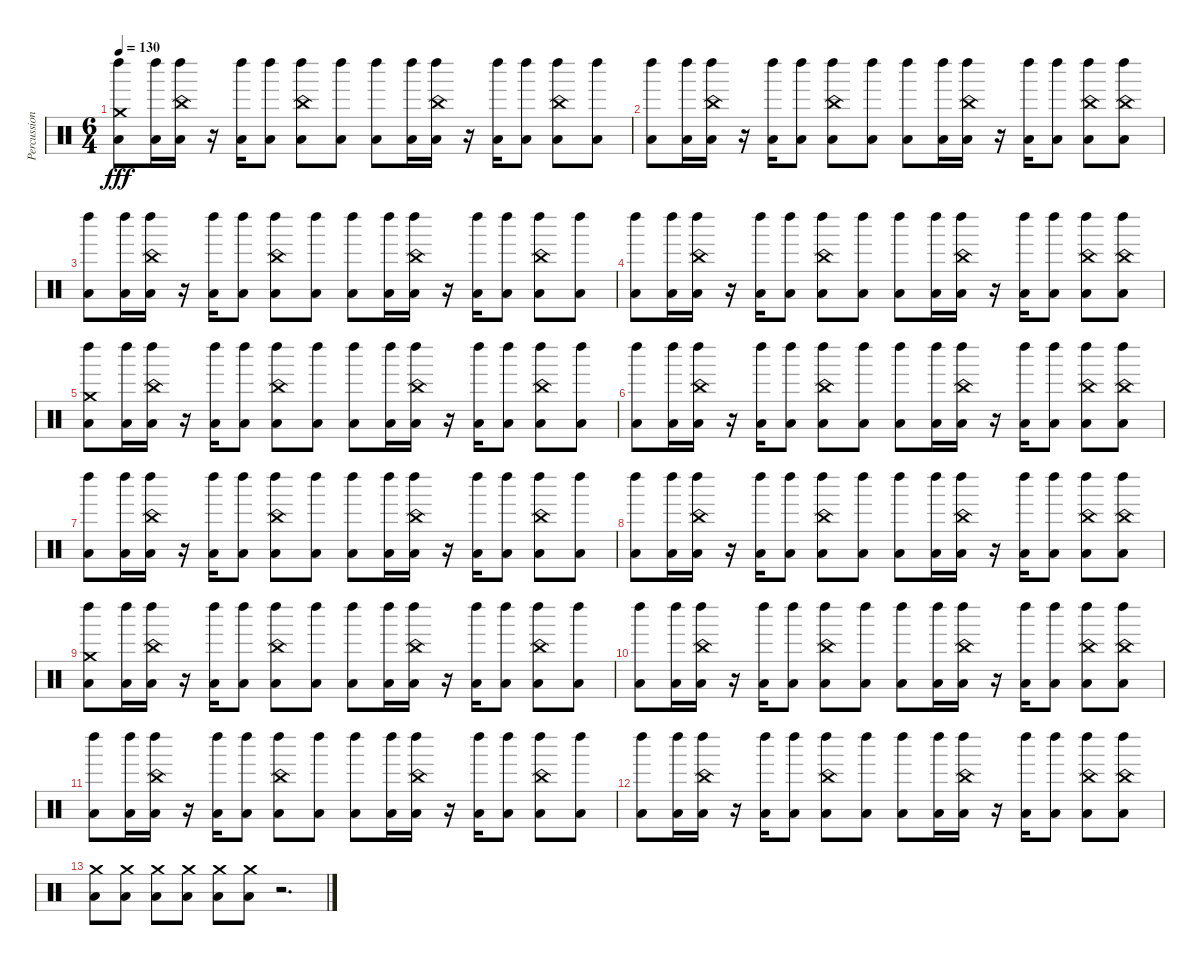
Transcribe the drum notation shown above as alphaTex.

\track ("Percussion" "Percussion") {instrument percussion}
\staff {score}
\articulation defaults
\ts (6 4)
\tempo 130
\clef neutral
\ks c
("Left Maraca (hit)" "Crash medium (hit)" "Low Floor Tom (hit)").8{dy fff} ("Left Maraca (hit)" "Low Tom (hit)").16 ("Left Maraca (hit)" "China (hit)" "Low Tom (hit)").16 r.16 ("Left Maraca (hit)" "Low Floor Tom (hit)").16 ("Left Maraca (hit)" "Low Floor Tom (hit)").8 ("Left Maraca (hit)" "China (hit)" "Low Tom (hit)").8 ("Left Maraca (hit)" "Low Tom (hit)").8 ("Left Maraca (hit)" "Low Floor Tom (hit)").8 ("Left Maraca (hit)" "Low Tom (hit)").16 ("Left Maraca (hit)" "China (hit)" "Low Tom (hit)").16 r.16 ("Left Maraca (hit)" "Low Floor Tom (hit)").16 ("Left Maraca (hit)" "Low Floor Tom (hit)").8 ("Left Maraca (hit)" "China (hit)" "Low Tom (hit)").8 ("Left Maraca (hit)" "Low Tom (hit)").8 |
("Left Maraca (hit)" "Low Floor Tom (hit)").8 ("Left Maraca (hit)" "Low Tom (hit)").16 ("Left Maraca (hit)" "China (hit)" "Low Tom (hit)").16 r.16 ("Left Maraca (hit)" "Low Floor Tom (hit)").16 ("Left Maraca (hit)" "Low Floor Tom (hit)").8 ("Left Maraca (hit)" "China (hit)" "Low Tom (hit)").8 ("Left Maraca (hit)" "Low Tom (hit)").8 ("Left Maraca (hit)" "Low Floor Tom (hit)").8 ("Left Maraca (hit)" "Low Tom (hit)").16 ("Left Maraca (hit)" "China (hit)" "Low Tom (hit)").16 r.16 ("Left Maraca (hit)" "Low Floor Tom (hit)").16 ("Left Maraca (hit)" "Low Floor Tom (hit)").8 ("Left Maraca (hit)" "China (hit)" "Low Tom (hit)").8 ("Left Maraca (hit)" "China (hit)" "Low Tom (hit)").8 |
("Left Maraca (hit)" "Low Floor Tom (hit)").8 ("Left Maraca (hit)" "Low Tom (hit)").16 ("Left Maraca (hit)" "China (hit)" "Low Tom (hit)").16 r.16 ("Left Maraca (hit)" "Low Floor Tom (hit)").16 ("Left Maraca (hit)" "Low Floor Tom (hit)").8 ("Left Maraca (hit)" "China (hit)" "Low Tom (hit)").8 ("Left Maraca (hit)" "Low Tom (hit)").8 ("Left Maraca (hit)" "Low Floor Tom (hit)").8 ("Left Maraca (hit)" "Low Tom (hit)").16 ("Left Maraca (hit)" "China (hit)" "Low Tom (hit)").16 r.16 ("Left Maraca (hit)" "Low Floor Tom (hit)").16 ("Left Maraca (hit)" "Low Floor Tom (hit)").8 ("Left Maraca (hit)" "China (hit)" "Low Tom (hit)").8 ("Left Maraca (hit)" "Low Tom (hit)").8 |
("Left Maraca (hit)" "Low Floor Tom (hit)").8 ("Left Maraca (hit)" "Low Tom (hit)").16 ("Left Maraca (hit)" "China (hit)" "Low Tom (hit)").16 r.16 ("Left Maraca (hit)" "Low Floor Tom (hit)").16 ("Left Maraca (hit)" "Low Floor Tom (hit)").8 ("Left Maraca (hit)" "China (hit)" "Low Tom (hit)").8 ("Left Maraca (hit)" "Low Tom (hit)").8 ("Left Maraca (hit)" "Low Floor Tom (hit)").8 ("Left Maraca (hit)" "Low Tom (hit)").16 ("Left Maraca (hit)" "China (hit)" "Low Tom (hit)").16 r.16 ("Left Maraca (hit)" "Low Floor Tom (hit)").16 ("Left Maraca (hit)" "Low Floor Tom (hit)").8 ("Left Maraca (hit)" "China (hit)" "Low Tom (hit)").8 ("Left Maraca (hit)" "China (hit)" "Low Tom (hit)").8 |
("Left Maraca (hit)" "Crash medium (hit)" "Low Floor Tom (hit)").8 ("Left Maraca (hit)" "Low Tom (hit)").16 ("Left Maraca (hit)" "China (hit)" "Low Tom (hit)").16 r.16 ("Left Maraca (hit)" "Low Floor Tom (hit)").16 ("Left Maraca (hit)" "Low Floor Tom (hit)").8 ("Left Maraca (hit)" "China (hit)" "Low Tom (hit)").8 ("Left Maraca (hit)" "Low Tom (hit)").8 ("Left Maraca (hit)" "Low Floor Tom (hit)").8 ("Left Maraca (hit)" "Low Tom (hit)").16 ("Left Maraca (hit)" "China (hit)" "Low Tom (hit)").16 r.16 ("Left Maraca (hit)" "Low Floor Tom (hit)").16 ("Left Maraca (hit)" "Low Floor Tom (hit)").8 ("Left Maraca (hit)" "China (hit)" "Low Tom (hit)").8 ("Left Maraca (hit)" "Low Tom (hit)").8 |
("Left Maraca (hit)" "Low Floor Tom (hit)").8 ("Left Maraca (hit)" "Low Tom (hit)").16 ("Left Maraca (hit)" "China (hit)" "Low Tom (hit)").16 r.16 ("Left Maraca (hit)" "Low Floor Tom (hit)").16 ("Left Maraca (hit)" "Low Floor Tom (hit)").8 ("Left Maraca (hit)" "China (hit)" "Low Tom (hit)").8 ("Left Maraca (hit)" "Low Tom (hit)").8 ("Left Maraca (hit)" "Low Floor Tom (hit)").8 ("Left Maraca (hit)" "Low Tom (hit)").16 ("Left Maraca (hit)" "China (hit)" "Low Tom (hit)").16 r.16 ("Left Maraca (hit)" "Low Floor Tom (hit)").16 ("Left Maraca (hit)" "Low Floor Tom (hit)").8 ("Left Maraca (hit)" "China (hit)" "Low Tom (hit)").8 ("Left Maraca (hit)" "China (hit)" "Low Tom (hit)").8 |
("Left Maraca (hit)" "Low Floor Tom (hit)").8 ("Left Maraca (hit)" "Low Tom (hit)").16 ("Left Maraca (hit)" "China (hit)" "Low Tom (hit)").16 r.16 ("Left Maraca (hit)" "Low Floor Tom (hit)").16 ("Left Maraca (hit)" "Low Floor Tom (hit)").8 ("Left Maraca (hit)" "China (hit)" "Low Tom (hit)").8 ("Left Maraca (hit)" "Low Tom (hit)").8 ("Left Maraca (hit)" "Low Floor Tom (hit)").8 ("Left Maraca (hit)" "Low Tom (hit)").16 ("Left Maraca (hit)" "China (hit)" "Low Tom (hit)").16 r.16 ("Left Maraca (hit)" "Low Floor Tom (hit)").16 ("Left Maraca (hit)" "Low Floor Tom (hit)").8 ("Left Maraca (hit)" "China (hit)" "Low Tom (hit)").8 ("Left Maraca (hit)" "Low Tom (hit)").8 |
("Left Maraca (hit)" "Low Floor Tom (hit)").8 ("Left Maraca (hit)" "Low Tom (hit)").16 ("Left Maraca (hit)" "China (hit)" "Low Tom (hit)").16 r.16 ("Left Maraca (hit)" "Low Floor Tom (hit)").16 ("Left Maraca (hit)" "Low Floor Tom (hit)").8 ("Left Maraca (hit)" "China (hit)" "Low Tom (hit)").8 ("Left Maraca (hit)" "Low Tom (hit)").8 ("Left Maraca (hit)" "Low Floor Tom (hit)").8 ("Left Maraca (hit)" "Low Tom (hit)").16 ("Left Maraca (hit)" "China (hit)" "Low Tom (hit)").16 r.16 ("Left Maraca (hit)" "Low Floor Tom (hit)").16 ("Left Maraca (hit)" "Low Floor Tom (hit)").8 ("Left Maraca (hit)" "China (hit)" "Low Tom (hit)").8 ("Left Maraca (hit)" "China (hit)" "Low Tom (hit)").8 |
("Left Maraca (hit)" "Crash medium (hit)" "Low Floor Tom (hit)").8 ("Left Maraca (hit)" "Low Tom (hit)").16 ("Left Maraca (hit)" "China (hit)" "Low Tom (hit)").16 r.16 ("Left Maraca (hit)" "Low Floor Tom (hit)").16 ("Left Maraca (hit)" "Low Floor Tom (hit)").8 ("Left Maraca (hit)" "China (hit)" "Low Tom (hit)").8 ("Left Maraca (hit)" "Low Tom (hit)").8 ("Left Maraca (hit)" "Low Floor Tom (hit)").8 ("Left Maraca (hit)" "Low Tom (hit)").16 ("Left Maraca (hit)" "China (hit)" "Low Tom (hit)").16 r.16 ("Left Maraca (hit)" "Low Floor Tom (hit)").16 ("Left Maraca (hit)" "Low Floor Tom (hit)").8 ("Left Maraca (hit)" "China (hit)" "Low Tom (hit)").8 ("Left Maraca (hit)" "Low Tom (hit)").8 |
("Left Maraca (hit)" "Low Floor Tom (hit)").8 ("Left Maraca (hit)" "Low Tom (hit)").16 ("Left Maraca (hit)" "China (hit)" "Low Tom (hit)").16 r.16 ("Left Maraca (hit)" "Low Floor Tom (hit)").16 ("Left Maraca (hit)" "Low Floor Tom (hit)").8 ("Left Maraca (hit)" "China (hit)" "Low Tom (hit)").8 ("Left Maraca (hit)" "Low Tom (hit)").8 ("Left Maraca (hit)" "Low Floor Tom (hit)").8 ("Left Maraca (hit)" "Low Tom (hit)").16 ("Left Maraca (hit)" "China (hit)" "Low Tom (hit)").16 r.16 ("Left Maraca (hit)" "Low Floor Tom (hit)").16 ("Left Maraca (hit)" "Low Floor Tom (hit)").8 ("Left Maraca (hit)" "China (hit)" "Low Tom (hit)").8 ("Left Maraca (hit)" "China (hit)" "Low Tom (hit)").8 |
("Left Maraca (hit)" "Low Floor Tom (hit)").8 ("Left Maraca (hit)" "Low Tom (hit)").16 ("Left Maraca (hit)" "China (hit)" "Low Tom (hit)").16 r.16 ("Left Maraca (hit)" "Low Floor Tom (hit)").16 ("Left Maraca (hit)" "Low Floor Tom (hit)").8 ("Left Maraca (hit)" "China (hit)" "Low Tom (hit)").8 ("Left Maraca (hit)" "Low Tom (hit)").8 ("Left Maraca (hit)" "Low Floor Tom (hit)").8 ("Left Maraca (hit)" "Low Tom (hit)").16 ("Left Maraca (hit)" "China (hit)" "Low Tom (hit)").16 r.16 ("Left Maraca (hit)" "Low Floor Tom (hit)").16 ("Left Maraca (hit)" "Low Floor Tom (hit)").8 ("Left Maraca (hit)" "China (hit)" "Low Tom (hit)").8 ("Left Maraca (hit)" "Low Tom (hit)").8 |
("Left Maraca (hit)" "Low Floor Tom (hit)").8 ("Left Maraca (hit)" "Low Tom (hit)").16 ("Left Maraca (hit)" "China (hit)" "Low Tom (hit)").16 r.16 ("Left Maraca (hit)" "Low Floor Tom (hit)").16 ("Left Maraca (hit)" "Low Floor Tom (hit)").8 ("Left Maraca (hit)" "China (hit)" "Low Tom (hit)").8 ("Left Maraca (hit)" "Low Tom (hit)").8 ("Left Maraca (hit)" "Low Floor Tom (hit)").8 ("Left Maraca (hit)" "Low Tom (hit)").16 ("Left Maraca (hit)" "China (hit)" "Low Tom (hit)").16 r.16 ("Left Maraca (hit)" "Low Floor Tom (hit)").16 ("Left Maraca (hit)" "Low Floor Tom (hit)").8 ("Left Maraca (hit)" "China (hit)" "Low Tom (hit)").8 ("Left Maraca (hit)" "China (hit)" "Low Tom (hit)").8 |
("Crash medium (hit)" "Low Floor Tom (hit)").8 ("Crash medium (hit)" "Low Floor Tom (hit)").8 ("Crash medium (hit)" "Low Floor Tom (hit)").8 ("Crash medium (hit)" "Low Floor Tom (hit)").8 ("Crash medium (hit)" "Low Floor Tom (hit)").8 ("Crash medium (hit)" "Low Floor Tom (hit)").8 r.2{d}
